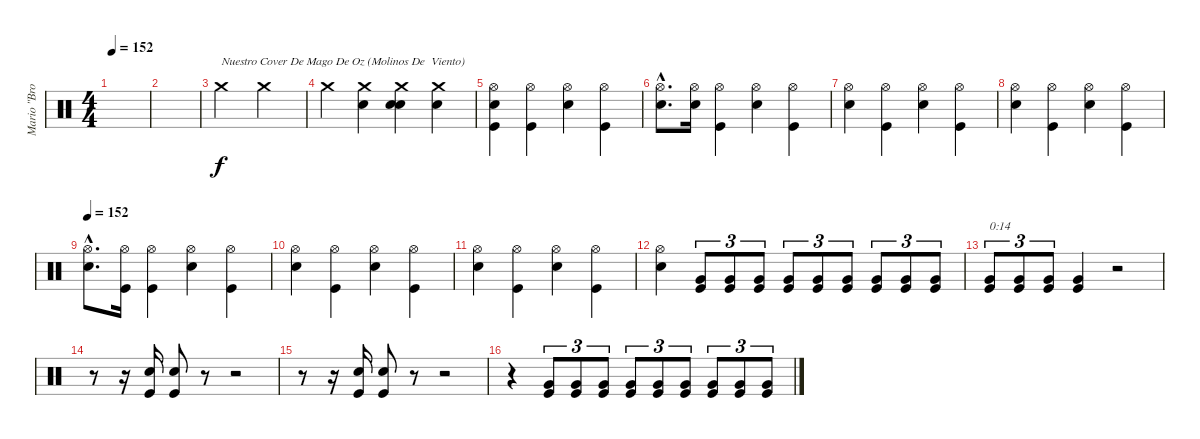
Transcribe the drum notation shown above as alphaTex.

\track ("Mario \"Bros\" Carvajal" "Mario \"Bro") {instrument percussion}
\staff {score}
\articulation defaults
\ts (4 4)
\tempo 152
\clef neutral
\ks c
|
|
"Crash medium (hit)".2{txt "Nuestro Cover De Mago De Oz (Molinos De  Viento)"} "Crash medium (hit)".2 |
"Crash medium (hit)".4 ("Snare (hit) 2" "Crash medium (hit)").4 ("Crash medium (hit)" "Snare (hit) 2" "Snare (hit) 2").4 ("Crash medium (hit)" "Snare (hit) 2").4 |
("Kick (hit)" "Hi-Hat (open)" "Snare (hit) 2").4 ("Kick (hit)" "Hi-Hat (open)").4 ("Snare (hit) 2" "Hi-Hat (open)").4 ("Kick (hit)" "Hi-Hat (open)").4 |
("Snare (hit) 2"{hac} "Hi-Hat (open)"{hac}).8{d} ("Snare (hit) 2" "Hi-Hat (open)").16 ("Kick (hit)" "Hi-Hat (open)").4 ("Snare (hit) 2" "Hi-Hat (open)").4 ("Kick (hit)" "Hi-Hat (open)").4 |
("Snare (hit) 2" "Hi-Hat (open)").4 ("Kick (hit)" "Hi-Hat (open)").4 ("Snare (hit) 2" "Hi-Hat (open)").4 ("Kick (hit)" "Hi-Hat (open)").4 |
("Snare (hit) 2" "Hi-Hat (open)").4 ("Kick (hit)" "Hi-Hat (open)").4 ("Snare (hit) 2" "Hi-Hat (open)").4 ("Kick (hit)" "Hi-Hat (open)").4 |
\tempo 152
("Snare (hit) 2"{hac} "Hi-Hat (open)"{hac}).8{d} ("Kick (hit)" "Hi-Hat (open)").16 ("Kick (hit)" "Hi-Hat (open)").4 ("Snare (hit) 2" "Hi-Hat (open)").4 ("Kick (hit)" "Hi-Hat (open)").4 |
("Snare (hit) 2" "Hi-Hat (open)").4 ("Kick (hit)" "Hi-Hat (open)").4 ("Snare (hit) 2" "Hi-Hat (open)").4 ("Kick (hit)" "Hi-Hat (open)").4 |
("Snare (hit) 2" "Hi-Hat (open)").4 ("Kick (hit)" "Hi-Hat (open)").4 ("Snare (hit) 2" "Hi-Hat (open)").4 ("Kick (hit)" "Hi-Hat (open)").4 |
("Snare (hit) 2" "Hi-Hat (open)").4 ("Kick (hit)" "Very Low Tom (hit)").8{tu (3 2)} ("Kick (hit)" "Very Low Tom (hit)").8{tu (3 2)} ("Kick (hit)" "Very Low Tom (hit)").8{tu (3 2)} ("Kick (hit)" "Very Low Tom (hit)").8{tu (3 2)} ("Kick (hit)" "Very Low Tom (hit)").8{tu (3 2)} ("Kick (hit)" "Very Low Tom (hit)").8{tu (3 2)} ("Kick (hit)" "Very Low Tom (hit)").8{tu (3 2)} ("Kick (hit)" "Very Low Tom (hit)").8{tu (3 2)} ("Kick (hit)" "Very Low Tom (hit)").8{tu (3 2)} |
("Kick (hit)" "Very Low Tom (hit)").8{tu (3 2) txt "0:14"} ("Kick (hit)" "Very Low Tom (hit)").8{tu (3 2)} ("Kick (hit)" "Very Low Tom (hit)").8{tu (3 2)} ("Kick (hit)" "Very Low Tom (hit)").4 r.2 |
r.8 r.16 ("Kick (hit)" "Snare (hit) 2").16 ("Kick (hit)" "Snare (hit) 2").8 r.8 r.2 |
r.8 r.16 ("Kick (hit)" "Snare (hit) 2").16 ("Kick (hit)" "Snare (hit) 2").8 r.8 r.2 |
r.4 ("Kick (hit)" "Very Low Tom (hit)").8{tu (3 2)} ("Kick (hit)" "Very Low Tom (hit)").8{tu (3 2)} ("Kick (hit)" "Very Low Tom (hit)").8{tu (3 2)} ("Kick (hit)" "Very Low Tom (hit)").8{tu (3 2)} ("Kick (hit)" "Very Low Tom (hit)").8{tu (3 2)} ("Kick (hit)" "Very Low Tom (hit)").8{tu (3 2)} ("Kick (hit)" "Very Low Tom (hit)").8{tu (3 2)} ("Kick (hit)" "Very Low Tom (hit)").8{tu (3 2)} ("Kick (hit)" "Very Low Tom (hit)").8{tu (3 2)}
